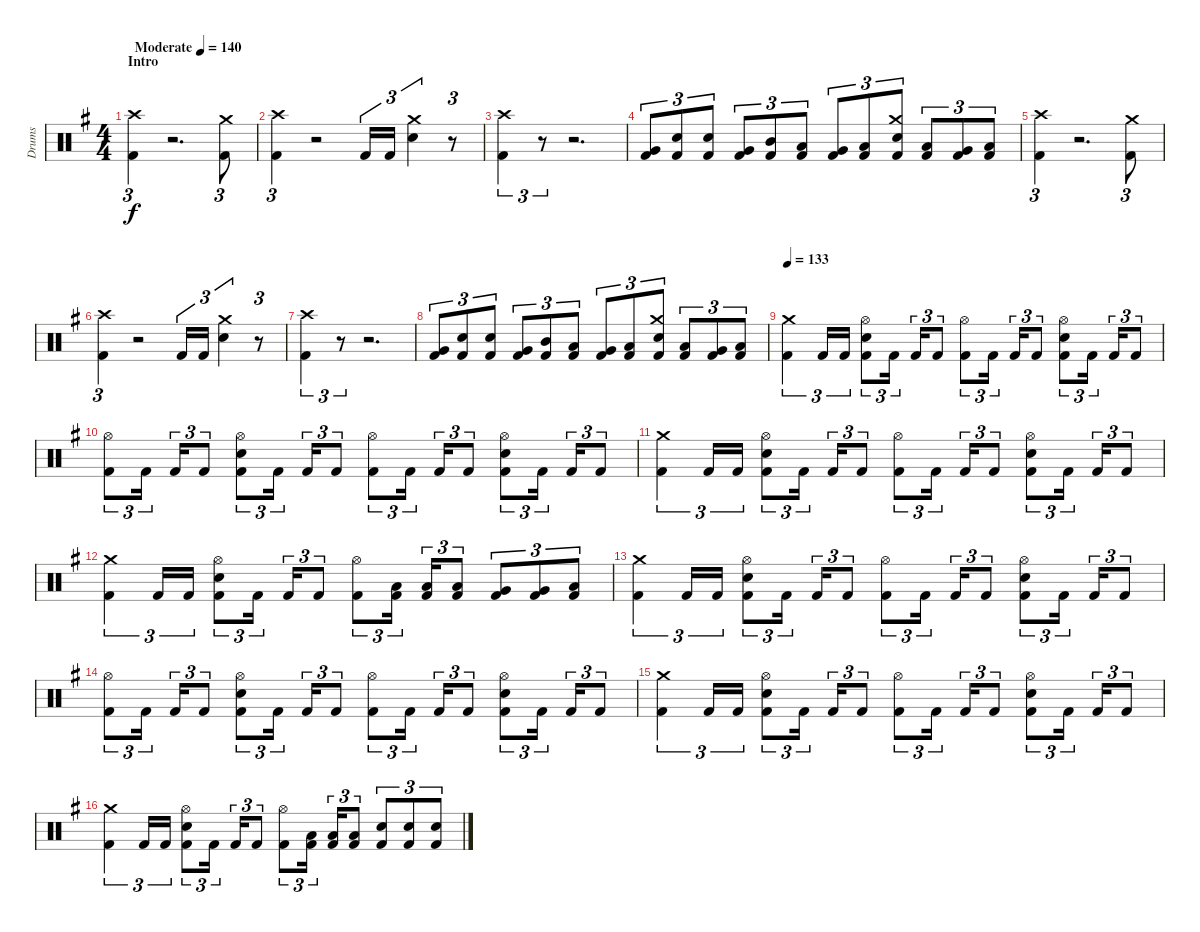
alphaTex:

\track ("Drums" "Drums") {instrument percussion}
\staff {score}
\articulation defaults
\ts (4 4)
\section ("" "Intro")
\tempo (140 "Moderate")
\clef neutral
\ks eminor
("Crash high (hit)" "Kick (hit) 2").4{tu (3 2) dy f} r.2{d} ("Crash medium (hit)" "Kick (hit) 2").8{tu (3 2)} |
("Crash high (hit)" "Kick (hit) 2").4{tu (3 2)} r.2 "Kick (hit) 2".16{tu (3 2)} "Kick (hit) 2".16{tu (3 2)} ("Crash medium (hit)" "Electric Snare (hit)").4{tu (3 2)} r.8{tu (3 2)} |
("Crash high (hit)" "Kick (hit) 2").4{tu (3 2)} r.8{tu (3 2)} r.2{d} |
("Kick (hit) 2" "Very Low Tom (hit)").8{tu (3 2)} ("Kick (hit) 2" "Electric Snare (hit)").8{tu (3 2)} ("Kick (hit) 2" "Electric Snare (hit)").8{tu (3 2)} ("Kick (hit) 2" "Very Low Tom (hit)").8{tu (3 2)} ("Kick (hit) 2" "Mid Tom (hit)").8{tu (3 2)} ("Kick (hit) 2" "Low Tom (hit)").8{tu (3 2)} ("Kick (hit) 2" "Very Low Tom (hit)").8{tu (3 2)} ("Kick (hit) 2" "Low Tom (hit)").8{tu (3 2)} ("Kick (hit) 2" "Electric Snare (hit)" "Crash medium (hit)").8{tu (3 2)} ("Kick (hit) 2" "Low Tom (hit)").8{tu (3 2)} ("Kick (hit) 2" "Very Low Tom (hit)").8{tu (3 2)} ("Kick (hit) 2" "Low Floor Tom (hit)").8{tu (3 2)} |
("Crash high (hit)" "Kick (hit) 2").4{tu (3 2)} r.2{d} ("Crash medium (hit)" "Kick (hit) 2").8{tu (3 2)} |
("Crash high (hit)" "Kick (hit) 2").4{tu (3 2)} r.2 "Kick (hit) 2".16{tu (3 2)} "Kick (hit) 2".16{tu (3 2)} ("Crash medium (hit)" "Electric Snare (hit)").4{tu (3 2)} r.8{tu (3 2)} |
("Crash high (hit)" "Kick (hit) 2").4{tu (3 2)} r.8{tu (3 2)} r.2{d} |
("Kick (hit) 2" "Very Low Tom (hit)").8{tu (3 2)} ("Kick (hit) 2" "Electric Snare (hit)").8{tu (3 2)} ("Kick (hit) 2" "Electric Snare (hit)").8{tu (3 2)} ("Kick (hit) 2" "Very Low Tom (hit)").8{tu (3 2)} ("Kick (hit) 2" "Mid Tom (hit)").8{tu (3 2)} ("Kick (hit) 2" "Low Tom (hit)").8{tu (3 2)} ("Kick (hit) 2" "Very Low Tom (hit)").8{tu (3 2)} ("Kick (hit) 2" "Low Tom (hit)").8{tu (3 2)} ("Kick (hit) 2" "Electric Snare (hit)" "Crash medium (hit)").8{tu (3 2)} ("Kick (hit) 2" "Low Tom (hit)").8{tu (3 2)} ("Kick (hit) 2" "Very Low Tom (hit)").8{tu (3 2)} ("Kick (hit) 2" "Low Floor Tom (hit)").8{tu (3 2)} |
\tempo 133
("Crash medium (hit)" "Kick (hit) 2").4{tu (3 2)} "Kick (hit) 2".16{tu (3 2)} "Kick (hit) 2".16{tu (3 2)} ("Hi-Hat (open)" "Electric Snare (hit)" "Kick (hit) 2").8{tu (3 2)} "Kick (hit) 2".16{tu (3 2) beam splitsecondary} "Kick (hit) 2".16{tu (3 2)} "Kick (hit) 2".8{tu (3 2)} ("Hi-Hat (open)" "Kick (hit) 2").8{tu (3 2)} "Kick (hit) 2".16{tu (3 2) beam splitsecondary} "Kick (hit) 2".16{tu (3 2)} "Kick (hit) 2".8{tu (3 2)} ("Hi-Hat (open)" "Electric Snare (hit)" "Kick (hit) 2").8{tu (3 2)} "Kick (hit) 2".16{tu (3 2) beam splitsecondary} "Kick (hit) 2".16{tu (3 2)} "Kick (hit) 2".8{tu (3 2)} |
("Hi-Hat (open)" "Kick (hit) 2").8{tu (3 2)} "Kick (hit) 2".16{tu (3 2) beam splitsecondary} "Kick (hit) 2".16{tu (3 2)} "Kick (hit) 2".8{tu (3 2)} ("Hi-Hat (open)" "Electric Snare (hit)" "Kick (hit) 2").8{tu (3 2)} "Kick (hit) 2".16{tu (3 2) beam splitsecondary} "Kick (hit) 2".16{tu (3 2)} "Kick (hit) 2".8{tu (3 2)} ("Hi-Hat (open)" "Kick (hit) 2").8{tu (3 2)} "Kick (hit) 2".16{tu (3 2) beam splitsecondary} "Kick (hit) 2".16{tu (3 2)} "Kick (hit) 2".8{tu (3 2)} ("Hi-Hat (open)" "Electric Snare (hit)" "Kick (hit) 2").8{tu (3 2)} "Kick (hit) 2".16{tu (3 2) beam splitsecondary} "Kick (hit) 2".16{tu (3 2)} "Kick (hit) 2".8{tu (3 2)} |
("Crash medium (hit)" "Kick (hit) 2").4{tu (3 2)} "Kick (hit) 2".16{tu (3 2)} "Kick (hit) 2".16{tu (3 2)} ("Hi-Hat (open)" "Electric Snare (hit)" "Kick (hit) 2").8{tu (3 2)} "Kick (hit) 2".16{tu (3 2) beam splitsecondary} "Kick (hit) 2".16{tu (3 2)} "Kick (hit) 2".8{tu (3 2)} ("Hi-Hat (open)" "Kick (hit) 2").8{tu (3 2)} "Kick (hit) 2".16{tu (3 2) beam splitsecondary} "Kick (hit) 2".16{tu (3 2)} "Kick (hit) 2".8{tu (3 2)} ("Hi-Hat (open)" "Electric Snare (hit)" "Kick (hit) 2").8{tu (3 2)} "Kick (hit) 2".16{tu (3 2) beam splitsecondary} "Kick (hit) 2".16{tu (3 2)} "Kick (hit) 2".8{tu (3 2)} |
("Crash medium (hit)" "Kick (hit) 2").4{tu (3 2)} "Kick (hit) 2".16{tu (3 2)} "Kick (hit) 2".16{tu (3 2)} ("Hi-Hat (open)" "Electric Snare (hit)" "Kick (hit) 2").8{tu (3 2)} "Kick (hit) 2".16{tu (3 2) beam splitsecondary} "Kick (hit) 2".16{tu (3 2)} "Kick (hit) 2".8{tu (3 2)} ("Hi-Hat (open)" "Kick (hit) 2").8{tu (3 2)} ("Low Tom (hit)" "Kick (hit) 2").16{tu (3 2) beam splitsecondary} ("Low Tom (hit)" "Kick (hit) 2").16{tu (3 2)} ("Low Tom (hit)" "Kick (hit) 2").8{tu (3 2)} ("Very Low Tom (hit)" "Kick (hit) 2").8{tu (3 2)} ("Very Low Tom (hit)" "Kick (hit) 2").8{tu (3 2)} ("Low Floor Tom (hit)" "Kick (hit) 2").8{tu (3 2)} |
("Crash medium (hit)" "Kick (hit) 2").4{tu (3 2)} "Kick (hit) 2".16{tu (3 2)} "Kick (hit) 2".16{tu (3 2)} ("Hi-Hat (open)" "Electric Snare (hit)" "Kick (hit) 2").8{tu (3 2)} "Kick (hit) 2".16{tu (3 2) beam splitsecondary} "Kick (hit) 2".16{tu (3 2)} "Kick (hit) 2".8{tu (3 2)} ("Hi-Hat (open)" "Kick (hit) 2").8{tu (3 2)} "Kick (hit) 2".16{tu (3 2) beam splitsecondary} "Kick (hit) 2".16{tu (3 2)} "Kick (hit) 2".8{tu (3 2)} ("Hi-Hat (open)" "Electric Snare (hit)" "Kick (hit) 2").8{tu (3 2)} "Kick (hit) 2".16{tu (3 2) beam splitsecondary} "Kick (hit) 2".16{tu (3 2)} "Kick (hit) 2".8{tu (3 2)} |
("Hi-Hat (open)" "Kick (hit) 2").8{tu (3 2)} "Kick (hit) 2".16{tu (3 2) beam splitsecondary} "Kick (hit) 2".16{tu (3 2)} "Kick (hit) 2".8{tu (3 2)} ("Hi-Hat (open)" "Electric Snare (hit)" "Kick (hit) 2").8{tu (3 2)} "Kick (hit) 2".16{tu (3 2) beam splitsecondary} "Kick (hit) 2".16{tu (3 2)} "Kick (hit) 2".8{tu (3 2)} ("Hi-Hat (open)" "Kick (hit) 2").8{tu (3 2)} "Kick (hit) 2".16{tu (3 2) beam splitsecondary} "Kick (hit) 2".16{tu (3 2)} "Kick (hit) 2".8{tu (3 2)} ("Hi-Hat (open)" "Electric Snare (hit)" "Kick (hit) 2").8{tu (3 2)} "Kick (hit) 2".16{tu (3 2) beam splitsecondary} "Kick (hit) 2".16{tu (3 2)} "Kick (hit) 2".8{tu (3 2)} |
("Crash medium (hit)" "Kick (hit) 2").4{tu (3 2)} "Kick (hit) 2".16{tu (3 2)} "Kick (hit) 2".16{tu (3 2)} ("Hi-Hat (open)" "Electric Snare (hit)" "Kick (hit) 2").8{tu (3 2)} "Kick (hit) 2".16{tu (3 2) beam splitsecondary} "Kick (hit) 2".16{tu (3 2)} "Kick (hit) 2".8{tu (3 2)} ("Hi-Hat (open)" "Kick (hit) 2").8{tu (3 2)} "Kick (hit) 2".16{tu (3 2) beam splitsecondary} "Kick (hit) 2".16{tu (3 2)} "Kick (hit) 2".8{tu (3 2)} ("Hi-Hat (open)" "Electric Snare (hit)" "Kick (hit) 2").8{tu (3 2)} "Kick (hit) 2".16{tu (3 2) beam splitsecondary} "Kick (hit) 2".16{tu (3 2)} "Kick (hit) 2".8{tu (3 2)} |
("Crash medium (hit)" "Kick (hit) 2").4{tu (3 2)} "Kick (hit) 2".16{tu (3 2)} "Kick (hit) 2".16{tu (3 2)} ("Hi-Hat (open)" "Electric Snare (hit)" "Kick (hit) 2").8{tu (3 2)} "Kick (hit) 2".16{tu (3 2) beam splitsecondary} "Kick (hit) 2".16{tu (3 2)} "Kick (hit) 2".8{tu (3 2)} ("Hi-Hat (open)" "Kick (hit) 2").8{tu (3 2)} ("Low Tom (hit)" "Kick (hit) 2").16{tu (3 2) beam splitsecondary} ("Low Tom (hit)" "Kick (hit) 2").16{tu (3 2)} ("Low Tom (hit)" "Kick (hit) 2").8{tu (3 2)} ("Electric Snare (hit)" "Kick (hit) 2").8{tu (3 2)} ("Electric Snare (hit)" "Kick (hit) 2").8{tu (3 2)} ("Electric Snare (hit)" "Kick (hit) 2").8{tu (3 2)}
